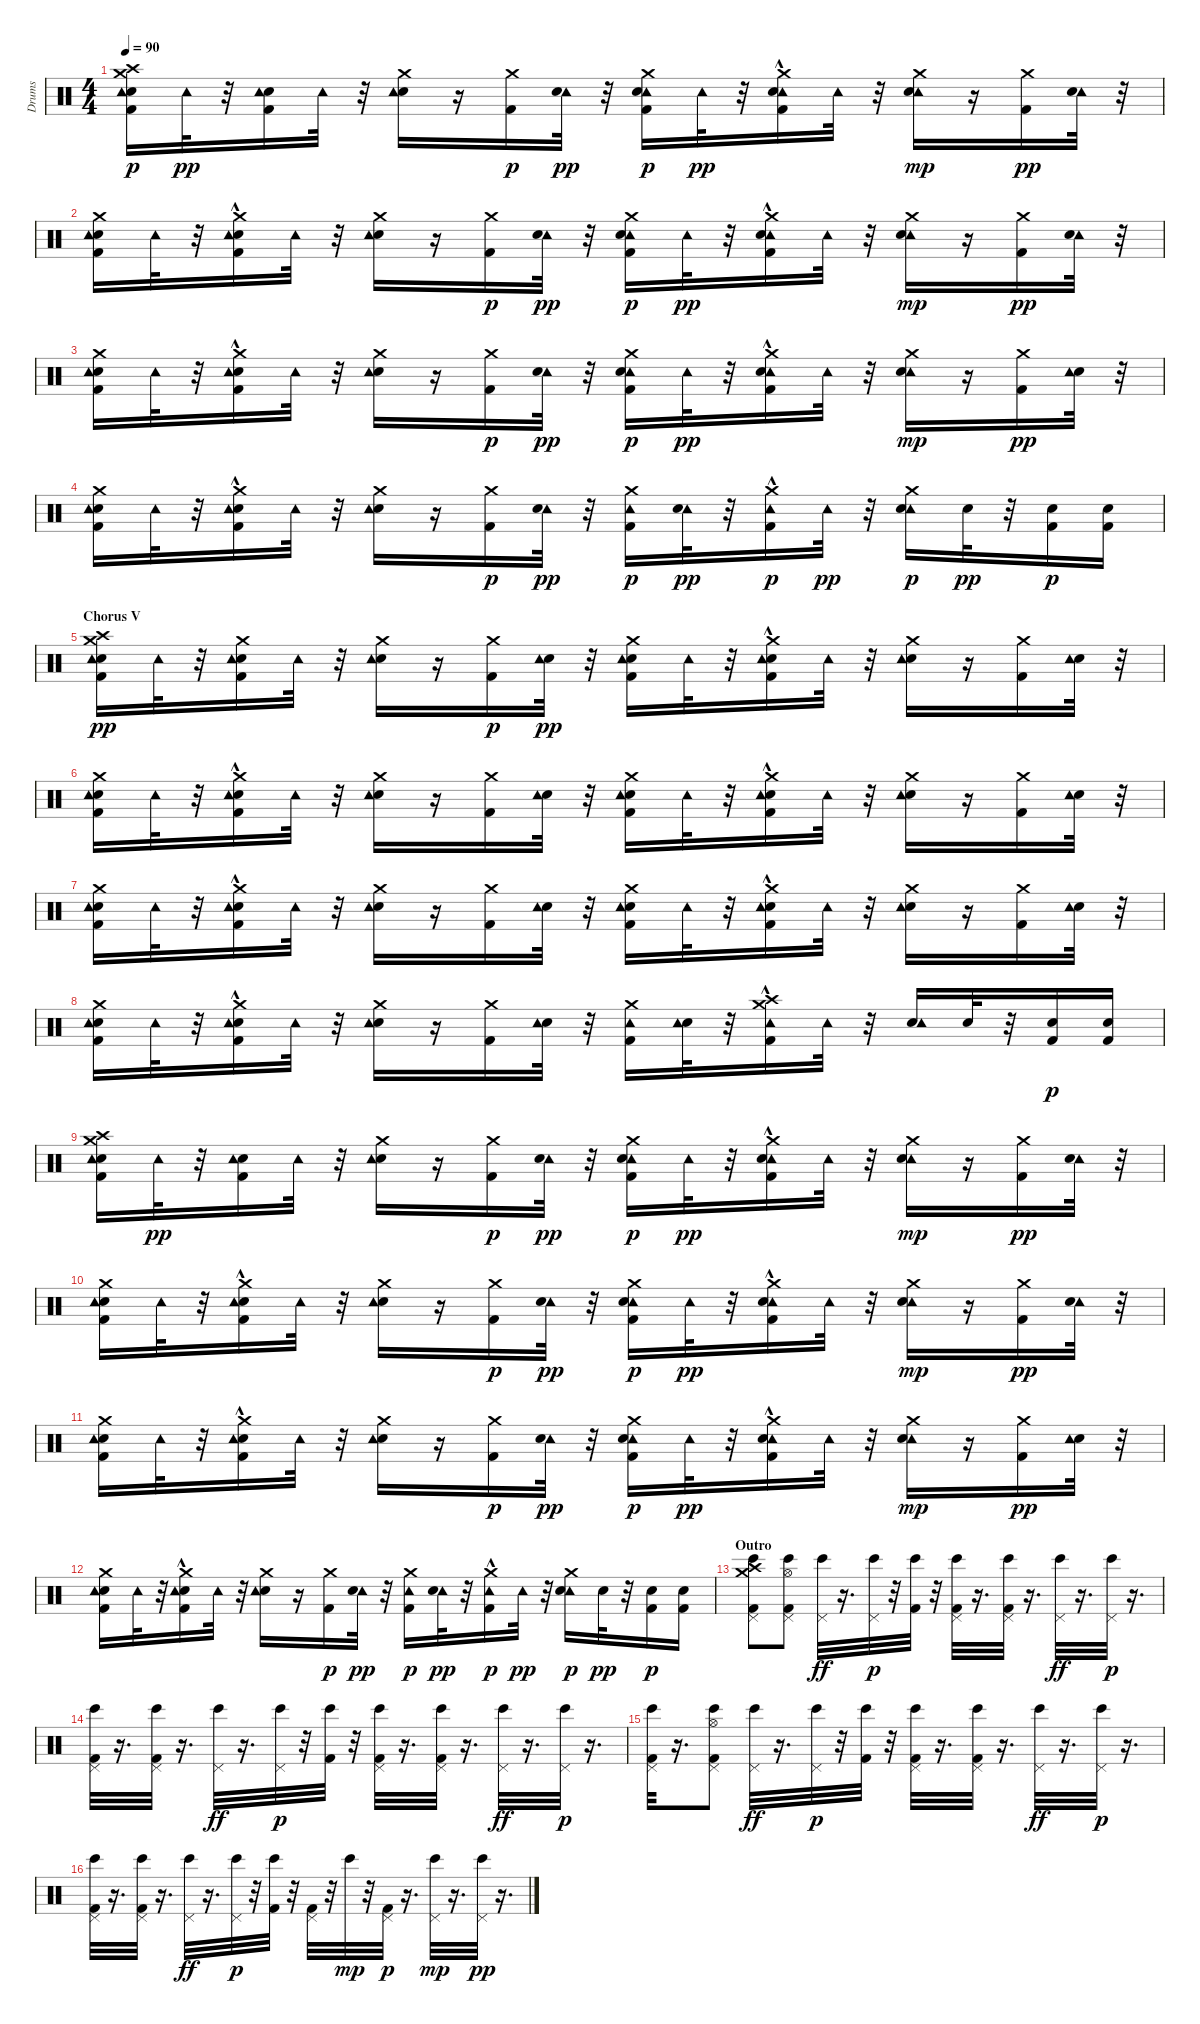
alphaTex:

\track ("Drums" "Drums") {instrument percussion}
\staff {score}
\articulation defaults
\ts (4 4)
\tempo 90
\clef neutral
\ks c
("Electric Snare (hit)" "Tambourine (hit)" "Kick (hit) 2" "Crash high (hit)" "Crash medium (hit)").16{dy p} "Tambourine (hit)".32{dy pp} r.32 ("Electric Snare (hit)" "Tambourine (hit)" "Kick (hit) 2").16 "Tambourine (hit)".32 r.32 ("Crash medium (hit)" "Electric Snare (hit)" "Tambourine (hit)").16 r.16 ("Crash medium (hit)" "Kick (hit) 2").16{dy p} ("Tambourine (hit)" "Electric Snare (hit)").32{dy pp} r.32 ("Crash medium (hit)" "Tambourine (hit)" "Electric Snare (hit)" "Kick (hit) 2").16{dy p} "Tambourine (hit)".32{dy pp} r.32 ("Crash medium (hit)"{hac} "Tambourine (hit)" "Electric Snare (hit)" "Kick (hit) 2").16 "Tambourine (hit)".32 r.32 ("Crash medium (hit)" "Tambourine (hit)" "Electric Snare (hit)").16{dy mp} r.16 ("Crash medium (hit)" "Kick (hit) 2").16{dy pp} ("Tambourine (hit)" "Electric Snare (hit)").32 r.32 |
("Crash medium (hit)" "Electric Snare (hit)" "Kick (hit) 2" "Tambourine (hit)").16 "Tambourine (hit)".32 r.32 ("Crash medium (hit)"{hac} "Electric Snare (hit)" "Kick (hit) 2" "Tambourine (hit)").16 "Tambourine (hit)".32 r.32 ("Crash medium (hit)" "Electric Snare (hit)" "Tambourine (hit)").16 r.16 ("Crash medium (hit)" "Kick (hit) 2").16{dy p} ("Tambourine (hit)" "Electric Snare (hit)").32{dy pp} r.32 ("Crash medium (hit)" "Tambourine (hit)" "Electric Snare (hit)" "Kick (hit) 2").16{dy p} "Tambourine (hit)".32{dy pp} r.32 ("Crash medium (hit)"{hac} "Tambourine (hit)" "Electric Snare (hit)" "Kick (hit) 2").16 "Tambourine (hit)".32 r.32 ("Crash medium (hit)" "Tambourine (hit)" "Electric Snare (hit)").16{dy mp} r.16 ("Crash medium (hit)" "Kick (hit) 2").16{dy pp} ("Tambourine (hit)" "Electric Snare (hit)").32 r.32 |
("Crash medium (hit)" "Kick (hit) 2" "Electric Snare (hit)" "Tambourine (hit)").16 "Tambourine (hit)".32 r.32 ("Crash medium (hit)"{hac} "Kick (hit) 2" "Electric Snare (hit)" "Tambourine (hit)").16 "Tambourine (hit)".32 r.32 ("Crash medium (hit)" "Electric Snare (hit)" "Tambourine (hit)").16 r.16 ("Crash medium (hit)" "Kick (hit) 2").16{dy p} ("Tambourine (hit)" "Electric Snare (hit)").32{dy pp} r.32 ("Crash medium (hit)" "Tambourine (hit)" "Electric Snare (hit)" "Kick (hit) 2").16{dy p} "Tambourine (hit)".32{dy pp} r.32 ("Crash medium (hit)"{hac} "Tambourine (hit)" "Electric Snare (hit)" "Kick (hit) 2").16 "Tambourine (hit)".32 r.32 ("Crash medium (hit)" "Tambourine (hit)" "Electric Snare (hit)").16{dy mp} r.16 ("Crash medium (hit)" "Kick (hit) 2").16{dy pp} ("Electric Snare (hit)" "Tambourine (hit)").32 r.32 |
("Crash medium (hit)" "Electric Snare (hit)" "Kick (hit) 2" "Tambourine (hit)").16 "Tambourine (hit)".32 r.32 ("Crash medium (hit)"{hac} "Electric Snare (hit)" "Kick (hit) 2" "Tambourine (hit)").16 "Tambourine (hit)".32 r.32 ("Crash medium (hit)" "Electric Snare (hit)" "Tambourine (hit)").16 r.16 ("Crash medium (hit)" "Kick (hit) 2").16{dy p} ("Tambourine (hit)" "Electric Snare (hit)").32{dy pp} r.32 ("Crash medium (hit)" "Tambourine (hit)" "Kick (hit) 2").16{dy p} ("Tambourine (hit)" "Electric Snare (hit)").32{dy pp} r.32 ("Crash medium (hit)"{hac} "Tambourine (hit)" "Kick (hit) 2").16{dy p} "Tambourine (hit)".32{dy pp} r.32 ("Crash medium (hit)" "Tambourine (hit)" "Electric Snare (hit)").16{dy p} "Electric Snare (hit)".32{dy pp} r.32 ("Electric Snare (hit)" "Kick (hit) 2").16{dy p} ("Kick (hit) 2" "Electric Snare (hit)").16 |
\section ("" "Chorus V")
("Electric Snare (hit)" "Crash medium (hit)" "Kick (hit) 2" "Crash high (hit)" "Tambourine (hit)").16{dy pp volume 12 balance 8} "Tambourine (hit)".32 r.32 ("Electric Snare (hit)" "Kick (hit) 2" "Crash medium (hit)" "Tambourine (hit)").16 "Tambourine (hit)".32 r.32 ("Electric Snare (hit)" "Crash medium (hit)" "Tambourine (hit)").16 r.16 ("Crash medium (hit)" "Kick (hit) 2").16{dy p} ("Electric Snare (hit)" "Tambourine (hit)").32{dy pp} r.32 ("Crash medium (hit)" "Electric Snare (hit)" "Kick (hit) 2" "Tambourine (hit)").16 "Tambourine (hit)".32 r.32 ("Crash medium (hit)"{hac} "Electric Snare (hit)" "Kick (hit) 2" "Tambourine (hit)").16 "Tambourine (hit)".32 r.32 ("Crash medium (hit)" "Electric Snare (hit)" "Tambourine (hit)").16 r.16 ("Crash medium (hit)" "Kick (hit) 2").16 ("Electric Snare (hit)" "Tambourine (hit)").32 r.32 |
("Crash medium (hit)" "Electric Snare (hit)" "Kick (hit) 2" "Tambourine (hit)").16 "Tambourine (hit)".32 r.32 ("Crash medium (hit)"{hac} "Electric Snare (hit)" "Kick (hit) 2" "Tambourine (hit)").16 "Tambourine (hit)".32 r.32 ("Crash medium (hit)" "Electric Snare (hit)" "Tambourine (hit)").16 r.16 ("Kick (hit) 2" "Crash medium (hit)").16 ("Electric Snare (hit)" "Tambourine (hit)").32 r.32 ("Electric Snare (hit)" "Kick (hit) 2" "Crash medium (hit)" "Tambourine (hit)").16 "Tambourine (hit)".32 r.32 ("Electric Snare (hit)" "Kick (hit) 2" "Crash medium (hit)"{hac} "Tambourine (hit)").16 "Tambourine (hit)".32 r.32 ("Crash medium (hit)" "Electric Snare (hit)" "Tambourine (hit)").16 r.16 ("Crash medium (hit)" "Kick (hit) 2").16 ("Electric Snare (hit)" "Tambourine (hit)").32 r.32 |
("Kick (hit) 2" "Electric Snare (hit)" "Crash medium (hit)" "Tambourine (hit)").16 "Tambourine (hit)".32 r.32 ("Kick (hit) 2" "Electric Snare (hit)" "Crash medium (hit)"{hac} "Tambourine (hit)").16 "Tambourine (hit)".32 r.32 ("Crash medium (hit)" "Electric Snare (hit)" "Tambourine (hit)").16 r.16 ("Kick (hit) 2" "Crash medium (hit)").16 ("Electric Snare (hit)" "Tambourine (hit)").32 r.32 ("Crash medium (hit)" "Electric Snare (hit)" "Kick (hit) 2" "Tambourine (hit)").16 "Tambourine (hit)".32 r.32 ("Crash medium (hit)"{hac} "Electric Snare (hit)" "Kick (hit) 2" "Tambourine (hit)").16 "Tambourine (hit)".32 r.32 ("Crash medium (hit)" "Electric Snare (hit)" "Tambourine (hit)").16 r.16 ("Kick (hit) 2" "Crash medium (hit)").16 ("Electric Snare (hit)" "Tambourine (hit)").32 r.32 |
("Electric Snare (hit)" "Kick (hit) 2" "Crash medium (hit)" "Tambourine (hit)").16 "Tambourine (hit)".32 r.32 ("Electric Snare (hit)" "Kick (hit) 2" "Crash medium (hit)"{hac} "Tambourine (hit)").16 "Tambourine (hit)".32 r.32 ("Crash medium (hit)" "Electric Snare (hit)" "Tambourine (hit)").16 r.16 ("Kick (hit) 2" "Crash medium (hit)").16 ("Electric Snare (hit)" "Tambourine (hit)").32 r.32 ("Kick (hit) 2" "Crash medium (hit)" "Tambourine (hit)").16 ("Electric Snare (hit)" "Tambourine (hit)").32 r.32 ("Kick (hit) 2" "Crash medium (hit)"{hac} "Crash high (hit)"{hac} "Tambourine (hit)").16 "Tambourine (hit)".32 r.32 ("Electric Snare (hit)" "Tambourine (hit)").16 "Electric Snare (hit)".32 r.32 ("Electric Snare (hit)" "Kick (hit) 2").16{dy p} ("Kick (hit) 2" "Electric Snare (hit)").16 |
("Electric Snare (hit)" "Tambourine (hit)" "Kick (hit) 2" "Crash high (hit)" "Crash medium (hit)").16 "Tambourine (hit)".32{dy pp} r.32 ("Electric Snare (hit)" "Tambourine (hit)" "Kick (hit) 2").16 "Tambourine (hit)".32 r.32 ("Crash medium (hit)" "Electric Snare (hit)" "Tambourine (hit)").16 r.16 ("Crash medium (hit)" "Kick (hit) 2").16{dy p} ("Tambourine (hit)" "Electric Snare (hit)").32{dy pp} r.32 ("Crash medium (hit)" "Tambourine (hit)" "Electric Snare (hit)" "Kick (hit) 2").16{dy p} "Tambourine (hit)".32{dy pp} r.32 ("Crash medium (hit)"{hac} "Tambourine (hit)" "Electric Snare (hit)" "Kick (hit) 2").16 "Tambourine (hit)".32 r.32 ("Crash medium (hit)" "Tambourine (hit)" "Electric Snare (hit)").16{dy mp} r.16 ("Crash medium (hit)" "Kick (hit) 2").16{dy pp} ("Tambourine (hit)" "Electric Snare (hit)").32 r.32 |
("Crash medium (hit)" "Electric Snare (hit)" "Kick (hit) 2" "Tambourine (hit)").16 "Tambourine (hit)".32 r.32 ("Crash medium (hit)"{hac} "Electric Snare (hit)" "Kick (hit) 2" "Tambourine (hit)").16 "Tambourine (hit)".32 r.32 ("Crash medium (hit)" "Electric Snare (hit)" "Tambourine (hit)").16 r.16 ("Crash medium (hit)" "Kick (hit) 2").16{dy p} ("Tambourine (hit)" "Electric Snare (hit)").32{dy pp} r.32 ("Crash medium (hit)" "Tambourine (hit)" "Electric Snare (hit)" "Kick (hit) 2").16{dy p} "Tambourine (hit)".32{dy pp} r.32 ("Crash medium (hit)"{hac} "Tambourine (hit)" "Electric Snare (hit)" "Kick (hit) 2").16 "Tambourine (hit)".32 r.32 ("Crash medium (hit)" "Tambourine (hit)" "Electric Snare (hit)").16{dy mp} r.16 ("Crash medium (hit)" "Kick (hit) 2").16{dy pp} ("Tambourine (hit)" "Electric Snare (hit)").32 r.32 |
("Crash medium (hit)" "Kick (hit) 2" "Electric Snare (hit)" "Tambourine (hit)").16 "Tambourine (hit)".32 r.32 ("Crash medium (hit)"{hac} "Kick (hit) 2" "Electric Snare (hit)" "Tambourine (hit)").16 "Tambourine (hit)".32 r.32 ("Crash medium (hit)" "Electric Snare (hit)" "Tambourine (hit)").16 r.16 ("Crash medium (hit)" "Kick (hit) 2").16{dy p} ("Tambourine (hit)" "Electric Snare (hit)").32{dy pp} r.32 ("Crash medium (hit)" "Tambourine (hit)" "Electric Snare (hit)" "Kick (hit) 2").16{dy p} "Tambourine (hit)".32{dy pp} r.32 ("Crash medium (hit)"{hac} "Tambourine (hit)" "Electric Snare (hit)" "Kick (hit) 2").16 "Tambourine (hit)".32 r.32 ("Crash medium (hit)" "Tambourine (hit)" "Electric Snare (hit)").16{dy mp} r.16 ("Crash medium (hit)" "Kick (hit) 2").16{dy pp} ("Electric Snare (hit)" "Tambourine (hit)").32 r.32 |
("Crash medium (hit)" "Electric Snare (hit)" "Kick (hit) 2" "Tambourine (hit)").16 "Tambourine (hit)".32 r.32 ("Crash medium (hit)"{hac} "Electric Snare (hit)" "Kick (hit) 2" "Tambourine (hit)").16 "Tambourine (hit)".32 r.32 ("Crash medium (hit)" "Electric Snare (hit)" "Tambourine (hit)").16 r.16 ("Crash medium (hit)" "Kick (hit) 2").16{dy p} ("Tambourine (hit)" "Electric Snare (hit)").32{dy pp} r.32 ("Crash medium (hit)" "Tambourine (hit)" "Kick (hit) 2").16{dy p} ("Tambourine (hit)" "Electric Snare (hit)").32{dy pp} r.32 ("Crash medium (hit)"{hac} "Tambourine (hit)" "Kick (hit) 2").16{dy p} "Tambourine (hit)".32{dy pp} r.32 ("Crash medium (hit)" "Tambourine (hit)" "Electric Snare (hit)").16{dy p} "Electric Snare (hit)".32{dy pp} r.32 ("Electric Snare (hit)" "Kick (hit) 2").16{dy p} ("Kick (hit) 2" "Electric Snare (hit)").16 |
\section ("" "Outro")
("Crash medium (hit)" "Crash high (hit)" "Pedal Hi-Hat (hit)" "Bongo High (hit)" "Kick (hit) 2").8{volume 7 balance 8} ("Pedal Hi-Hat (hit)" "Hi-Hat (open)" "Kick (hit) 2" "Bongo High (hit)").8 ("Pedal Hi-Hat (hit)" "Bongo High (hit)").32{dy ff balance 10} r.16{d} ("Pedal Hi-Hat (hit)" "Bongo High (hit)").32{dy p} r.32 ("Kick (hit) 2" "Bongo High (hit)").32 r.32 ("Pedal Hi-Hat (hit)" "Bongo High (hit)" "Kick (hit) 2").32{balance 8} r.16{d} ("Kick (hit) 2" "Pedal Hi-Hat (hit)" "Bongo High (hit)").32 r.16{d} ("Pedal Hi-Hat (hit)" "Bongo High (hit)").32{dy ff balance 10} r.16{d} ("Pedal Hi-Hat (hit)" "Bongo High (hit)").32{dy p} r.16{d} |
("Kick (hit) 2" "Pedal Hi-Hat (hit)" "Bongo High (hit)").32{balance 8} r.16{d} ("Pedal Hi-Hat (hit)" "Kick (hit) 2" "Bongo High (hit)").32 r.16{d} ("Pedal Hi-Hat (hit)" "Bongo High (hit)").32{dy ff balance 10} r.16{d} ("Pedal Hi-Hat (hit)" "Bongo High (hit)").32{dy p} r.32 ("Kick (hit) 2" "Bongo High (hit)").32 r.32 ("Kick (hit) 2" "Pedal Hi-Hat (hit)" "Bongo High (hit)").32{balance 8} r.16{d} ("Kick (hit) 2" "Pedal Hi-Hat (hit)" "Bongo High (hit)").32 r.16{d} ("Pedal Hi-Hat (hit)" "Bongo High (hit)").32{dy ff balance 10} r.16{d} ("Pedal Hi-Hat (hit)" "Bongo High (hit)").32{dy p} r.16{d} |
("Kick (hit) 2" "Pedal Hi-Hat (hit)" "Bongo High (hit)").32{balance 8} r.16{d} ("Pedal Hi-Hat (hit)" "Hi-Hat (open)" "Kick (hit) 2" "Bongo High (hit)").8 ("Pedal Hi-Hat (hit)" "Bongo High (hit)").32{dy ff balance 10} r.16{d} ("Pedal Hi-Hat (hit)" "Bongo High (hit)").32{dy p} r.32 ("Kick (hit) 2" "Bongo High (hit)").32 r.32 ("Kick (hit) 2" "Pedal Hi-Hat (hit)" "Bongo High (hit)").32{balance 8} r.16{d} ("Pedal Hi-Hat (hit)" "Kick (hit) 2" "Bongo High (hit)").32 r.16{d} ("Pedal Hi-Hat (hit)" "Bongo High (hit)").32{dy ff balance 10} r.16{d} ("Pedal Hi-Hat (hit)" "Bongo High (hit)").32{dy p} r.16{d} |
("Kick (hit) 2" "Pedal Hi-Hat (hit)" "Bongo High (hit)").32{balance 6} r.16{d} ("Kick (hit) 2" "Bongo High (hit)" "Pedal Hi-Hat (hit)").32 r.16{d} ("Pedal Hi-Hat (hit)" "Bongo High (hit)").32{dy ff balance 10} r.16{d} ("Pedal Hi-Hat (hit)" "Bongo High (hit)").32{dy p} r.32 ("Kick (hit) 2" "Bongo High (hit)").32 r.32 ("Pedal Hi-Hat (hit)" "Kick (hit) 2").32{balance 6} r.32 "Bongo High (hit)".32{dy mp} r.32 ("Pedal Hi-Hat (hit)" "Kick (hit) 2").32{dy p} r.16{d} ("Pedal Hi-Hat (hit)" "Bongo High (hit)").32{dy mp balance 10} r.16{d} ("Pedal Hi-Hat (hit)" "Bongo High (hit)").32{dy pp} r.16{d}
